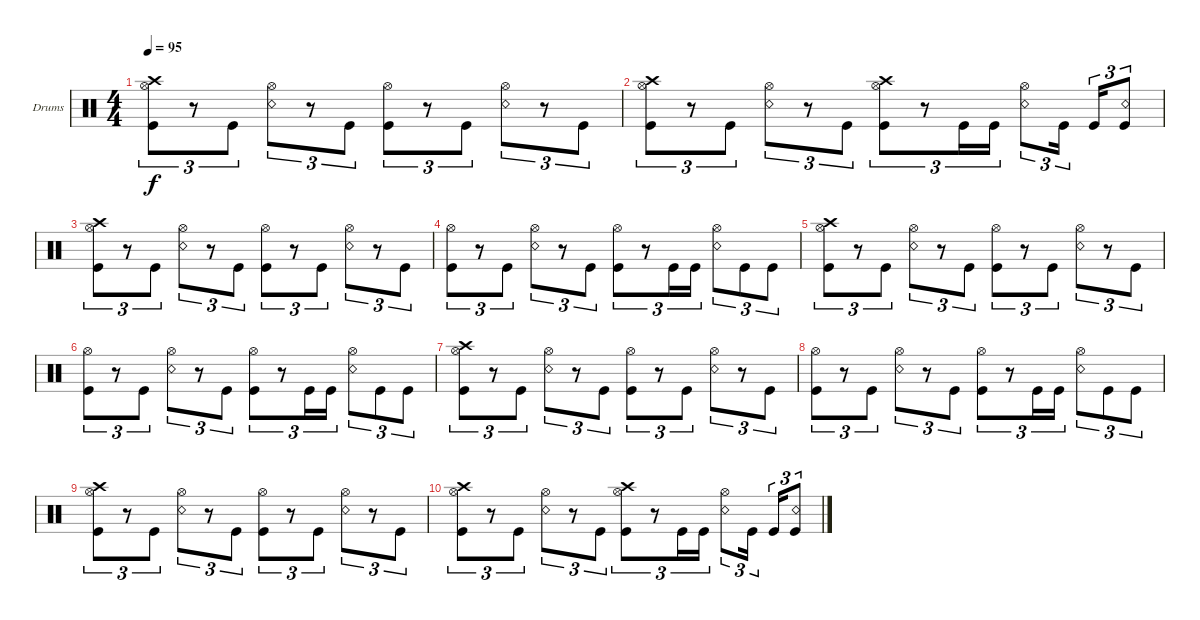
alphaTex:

\defaultSystemsLayout 4
\bracketExtendMode groupsimilarinstruments
\firstSystemTrackNameOrientation horizontal
\otherSystemsTrackNameOrientation horizontal
\track ("Drumkit" "Drums") {instrument percussion}
\staff {score}
\articulation defaults
\ts (4 4)
\tempo 95
\clef neutral
\ks c
("Hi-Hat (open)" "Kick (hit)" "Crash high (hit)").8{tu (3 2) dy f} r.8{tu (3 2)} "Kick (hit)".8{tu (3 2)} ("Hi-Hat (open)" "Snare (rim shot)").8{tu (3 2)} r.8{tu (3 2)} "Kick (hit)".8{tu (3 2)} ("Hi-Hat (open)" "Kick (hit)").8{tu (3 2)} r.8{tu (3 2)} "Kick (hit)".8{tu (3 2)} ("Hi-Hat (open)" "Snare (rim shot)").8{tu (3 2)} r.8{tu (3 2)} "Kick (hit)".8{tu (3 2)} |
("Hi-Hat (open)" "Kick (hit)" "Crash high (hit)").8{tu (3 2)} r.8{tu (3 2)} "Kick (hit)".8{tu (3 2)} ("Hi-Hat (open)" "Snare (rim shot)").8{tu (3 2)} r.8{tu (3 2)} "Kick (hit)".8{tu (3 2)} ("Hi-Hat (open)" "Kick (hit)" "Crash high (hit)").8{tu (3 2)} r.8{tu (3 2)} "Kick (hit)".16{tu (3 2)} "Kick (hit)".16{tu (3 2)} ("Hi-Hat (open)" "Snare (rim shot)").8{tu (3 2)} "Kick (hit)".16{tu (3 2)} "Kick (hit)".16{tu (3 2)} ("Kick (hit)" "Snare (rim shot)").8{tu (3 2)} |
("Hi-Hat (open)" "Kick (hit)" "Crash high (hit)").8{tu (3 2)} r.8{tu (3 2)} "Kick (hit)".8{tu (3 2)} ("Hi-Hat (open)" "Snare (rim shot)").8{tu (3 2)} r.8{tu (3 2)} "Kick (hit)".8{tu (3 2)} ("Hi-Hat (open)" "Kick (hit)").8{tu (3 2)} r.8{tu (3 2)} "Kick (hit)".8{tu (3 2)} ("Hi-Hat (open)" "Snare (rim shot)").8{tu (3 2)} r.8{tu (3 2)} "Kick (hit)".8{tu (3 2)} |
("Hi-Hat (open)" "Kick (hit)").8{tu (3 2)} r.8{tu (3 2)} "Kick (hit)".8{tu (3 2)} ("Hi-Hat (open)" "Snare (rim shot)").8{tu (3 2)} r.8{tu (3 2)} "Kick (hit)".8{tu (3 2)} ("Hi-Hat (open)" "Kick (hit)").8{tu (3 2)} r.8{tu (3 2)} "Kick (hit)".16{tu (3 2)} "Kick (hit)".16{tu (3 2)} ("Hi-Hat (open)" "Snare (rim shot)").8{tu (3 2)} "Kick (hit)".8{tu (3 2)} "Kick (hit)".8{tu (3 2)} |
("Hi-Hat (open)" "Kick (hit)" "Crash high (hit)").8{tu (3 2)} r.8{tu (3 2)} "Kick (hit)".8{tu (3 2)} ("Hi-Hat (open)" "Snare (rim shot)").8{tu (3 2)} r.8{tu (3 2)} "Kick (hit)".8{tu (3 2)} ("Hi-Hat (open)" "Kick (hit)").8{tu (3 2)} r.8{tu (3 2)} "Kick (hit)".8{tu (3 2)} ("Hi-Hat (open)" "Snare (rim shot)").8{tu (3 2)} r.8{tu (3 2)} "Kick (hit)".8{tu (3 2)} |
("Hi-Hat (open)" "Kick (hit)").8{tu (3 2)} r.8{tu (3 2)} "Kick (hit)".8{tu (3 2)} ("Hi-Hat (open)" "Snare (rim shot)").8{tu (3 2)} r.8{tu (3 2)} "Kick (hit)".8{tu (3 2)} ("Hi-Hat (open)" "Kick (hit)").8{tu (3 2)} r.8{tu (3 2)} "Kick (hit)".16{tu (3 2)} "Kick (hit)".16{tu (3 2)} ("Hi-Hat (open)" "Snare (rim shot)").8{tu (3 2)} "Kick (hit)".8{tu (3 2)} "Kick (hit)".8{tu (3 2)} |
("Hi-Hat (open)" "Kick (hit)" "Crash high (hit)").8{tu (3 2)} r.8{tu (3 2)} "Kick (hit)".8{tu (3 2)} ("Hi-Hat (open)" "Snare (rim shot)").8{tu (3 2)} r.8{tu (3 2)} "Kick (hit)".8{tu (3 2)} ("Hi-Hat (open)" "Kick (hit)").8{tu (3 2)} r.8{tu (3 2)} "Kick (hit)".8{tu (3 2)} ("Hi-Hat (open)" "Snare (rim shot)").8{tu (3 2)} r.8{tu (3 2)} "Kick (hit)".8{tu (3 2)} |
("Hi-Hat (open)" "Kick (hit)").8{tu (3 2)} r.8{tu (3 2)} "Kick (hit)".8{tu (3 2)} ("Hi-Hat (open)" "Snare (rim shot)").8{tu (3 2)} r.8{tu (3 2)} "Kick (hit)".8{tu (3 2)} ("Hi-Hat (open)" "Kick (hit)").8{tu (3 2)} r.8{tu (3 2)} "Kick (hit)".16{tu (3 2)} "Kick (hit)".16{tu (3 2)} ("Hi-Hat (open)" "Snare (rim shot)").8{tu (3 2)} "Kick (hit)".8{tu (3 2)} "Kick (hit)".8{tu (3 2)} |
("Hi-Hat (open)" "Kick (hit)" "Crash high (hit)").8{tu (3 2)} r.8{tu (3 2)} "Kick (hit)".8{tu (3 2)} ("Hi-Hat (open)" "Snare (rim shot)").8{tu (3 2)} r.8{tu (3 2)} "Kick (hit)".8{tu (3 2)} ("Hi-Hat (open)" "Kick (hit)").8{tu (3 2)} r.8{tu (3 2)} "Kick (hit)".8{tu (3 2)} ("Hi-Hat (open)" "Snare (rim shot)").8{tu (3 2)} r.8{tu (3 2)} "Kick (hit)".8{tu (3 2)} |
("Hi-Hat (open)" "Kick (hit)" "Crash high (hit)").8{tu (3 2)} r.8{tu (3 2)} "Kick (hit)".8{tu (3 2)} ("Hi-Hat (open)" "Snare (rim shot)").8{tu (3 2)} r.8{tu (3 2)} "Kick (hit)".8{tu (3 2)} ("Hi-Hat (open)" "Kick (hit)" "Crash high (hit)").8{tu (3 2)} r.8{tu (3 2)} "Kick (hit)".16{tu (3 2)} "Kick (hit)".16{tu (3 2)} ("Hi-Hat (open)" "Snare (rim shot)").8{tu (3 2)} "Kick (hit)".16{tu (3 2)} "Kick (hit)".16{tu (3 2)} ("Kick (hit)" "Snare (rim shot)").8{tu (3 2)}
